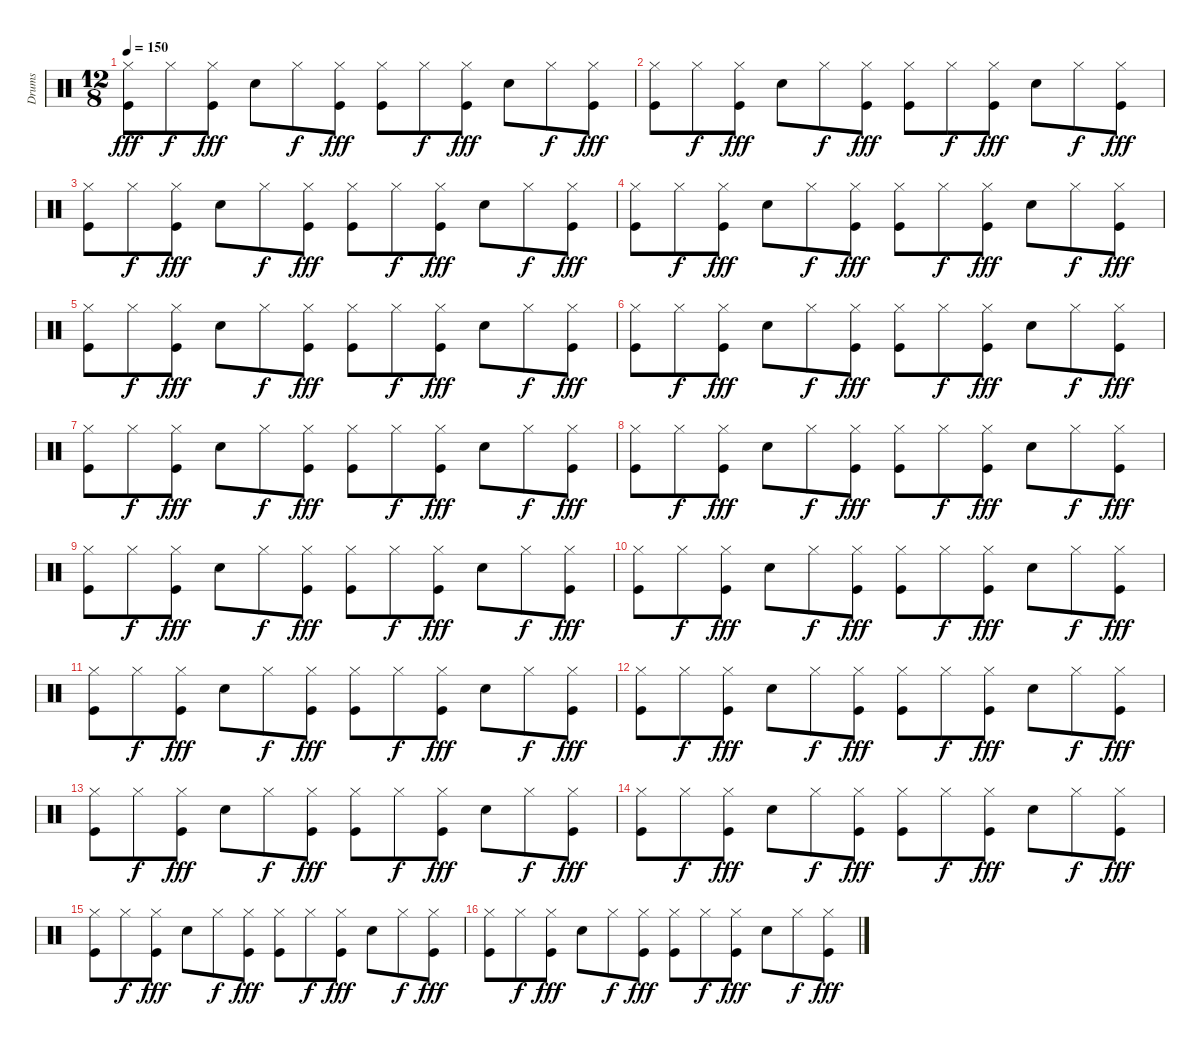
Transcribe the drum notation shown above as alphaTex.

\track ("Drums" "Drums") {instrument percussion}
\staff {score}
\articulation defaults
\ts (12 8)
\tempo 150
\clef neutral
\ks c
("Kick (hit)" "Hi-Hat (closed)").8{dy fff} "Hi-Hat (closed)".8{dy f} ("Kick (hit)" "Hi-Hat (closed)").8{dy fff} "Snare (hit) 2".8 "Hi-Hat (closed)".8{dy f} ("Kick (hit)" "Hi-Hat (closed)").8{dy fff} ("Kick (hit)" "Hi-Hat (closed)").8 "Hi-Hat (closed)".8{dy f} ("Kick (hit)" "Hi-Hat (closed)").8{dy fff} "Snare (hit) 2".8 "Hi-Hat (closed)".8{dy f} ("Kick (hit)" "Hi-Hat (closed)").8{dy fff} |
("Kick (hit)" "Hi-Hat (closed)").8 "Hi-Hat (closed)".8{dy f} ("Kick (hit)" "Hi-Hat (closed)").8{dy fff} "Snare (hit) 2".8 "Hi-Hat (closed)".8{dy f} ("Kick (hit)" "Hi-Hat (closed)").8{dy fff} ("Kick (hit)" "Hi-Hat (closed)").8 "Hi-Hat (closed)".8{dy f} ("Kick (hit)" "Hi-Hat (closed)").8{dy fff} "Snare (hit) 2".8 "Hi-Hat (closed)".8{dy f} ("Kick (hit)" "Hi-Hat (closed)").8{dy fff} |
("Kick (hit)" "Hi-Hat (closed)").8 "Hi-Hat (closed)".8{dy f} ("Kick (hit)" "Hi-Hat (closed)").8{dy fff} "Snare (hit) 2".8 "Hi-Hat (closed)".8{dy f} ("Kick (hit)" "Hi-Hat (closed)").8{dy fff} ("Kick (hit)" "Hi-Hat (closed)").8 "Hi-Hat (closed)".8{dy f} ("Kick (hit)" "Hi-Hat (closed)").8{dy fff} "Snare (hit) 2".8 "Hi-Hat (closed)".8{dy f} ("Kick (hit)" "Hi-Hat (closed)").8{dy fff} |
("Kick (hit)" "Hi-Hat (closed)").8 "Hi-Hat (closed)".8{dy f} ("Kick (hit)" "Hi-Hat (closed)").8{dy fff} "Snare (hit) 2".8 "Hi-Hat (closed)".8{dy f} ("Kick (hit)" "Hi-Hat (closed)").8{dy fff} ("Kick (hit)" "Hi-Hat (closed)").8 "Hi-Hat (closed)".8{dy f} ("Kick (hit)" "Hi-Hat (closed)").8{dy fff} "Snare (hit) 2".8 "Hi-Hat (closed)".8{dy f} ("Kick (hit)" "Hi-Hat (closed)").8{dy fff} |
("Kick (hit)" "Hi-Hat (closed)").8 "Hi-Hat (closed)".8{dy f} ("Kick (hit)" "Hi-Hat (closed)").8{dy fff} "Snare (hit) 2".8 "Hi-Hat (closed)".8{dy f} ("Kick (hit)" "Hi-Hat (closed)").8{dy fff} ("Kick (hit)" "Hi-Hat (closed)").8 "Hi-Hat (closed)".8{dy f} ("Kick (hit)" "Hi-Hat (closed)").8{dy fff} "Snare (hit) 2".8 "Hi-Hat (closed)".8{dy f} ("Kick (hit)" "Hi-Hat (closed)").8{dy fff} |
("Kick (hit)" "Hi-Hat (closed)").8 "Hi-Hat (closed)".8{dy f} ("Kick (hit)" "Hi-Hat (closed)").8{dy fff} "Snare (hit) 2".8 "Hi-Hat (closed)".8{dy f} ("Kick (hit)" "Hi-Hat (closed)").8{dy fff} ("Kick (hit)" "Hi-Hat (closed)").8 "Hi-Hat (closed)".8{dy f} ("Kick (hit)" "Hi-Hat (closed)").8{dy fff} "Snare (hit) 2".8 "Hi-Hat (closed)".8{dy f} ("Kick (hit)" "Hi-Hat (closed)").8{dy fff} |
("Kick (hit)" "Hi-Hat (closed)").8 "Hi-Hat (closed)".8{dy f} ("Kick (hit)" "Hi-Hat (closed)").8{dy fff} "Snare (hit) 2".8 "Hi-Hat (closed)".8{dy f} ("Kick (hit)" "Hi-Hat (closed)").8{dy fff} ("Kick (hit)" "Hi-Hat (closed)").8 "Hi-Hat (closed)".8{dy f} ("Kick (hit)" "Hi-Hat (closed)").8{dy fff} "Snare (hit) 2".8 "Hi-Hat (closed)".8{dy f} ("Kick (hit)" "Hi-Hat (closed)").8{dy fff} |
("Kick (hit)" "Hi-Hat (closed)").8 "Hi-Hat (closed)".8{dy f} ("Kick (hit)" "Hi-Hat (closed)").8{dy fff} "Snare (hit) 2".8 "Hi-Hat (closed)".8{dy f} ("Kick (hit)" "Hi-Hat (closed)").8{dy fff} ("Kick (hit)" "Hi-Hat (closed)").8 "Hi-Hat (closed)".8{dy f} ("Kick (hit)" "Hi-Hat (closed)").8{dy fff} "Snare (hit) 2".8 "Hi-Hat (closed)".8{dy f} ("Kick (hit)" "Hi-Hat (closed)").8{dy fff} |
("Kick (hit)" "Hi-Hat (closed)").8 "Hi-Hat (closed)".8{dy f} ("Kick (hit)" "Hi-Hat (closed)").8{dy fff} "Snare (hit) 2".8 "Hi-Hat (closed)".8{dy f} ("Kick (hit)" "Hi-Hat (closed)").8{dy fff} ("Kick (hit)" "Hi-Hat (closed)").8 "Hi-Hat (closed)".8{dy f} ("Kick (hit)" "Hi-Hat (closed)").8{dy fff} "Snare (hit) 2".8 "Hi-Hat (closed)".8{dy f} ("Kick (hit)" "Hi-Hat (closed)").8{dy fff} |
("Kick (hit)" "Hi-Hat (closed)").8 "Hi-Hat (closed)".8{dy f} ("Kick (hit)" "Hi-Hat (closed)").8{dy fff} "Snare (hit) 2".8 "Hi-Hat (closed)".8{dy f} ("Kick (hit)" "Hi-Hat (closed)").8{dy fff} ("Kick (hit)" "Hi-Hat (closed)").8 "Hi-Hat (closed)".8{dy f} ("Kick (hit)" "Hi-Hat (closed)").8{dy fff} "Snare (hit) 2".8 "Hi-Hat (closed)".8{dy f} ("Kick (hit)" "Hi-Hat (closed)").8{dy fff} |
("Kick (hit)" "Hi-Hat (closed)").8 "Hi-Hat (closed)".8{dy f} ("Kick (hit)" "Hi-Hat (closed)").8{dy fff} "Snare (hit) 2".8 "Hi-Hat (closed)".8{dy f} ("Kick (hit)" "Hi-Hat (closed)").8{dy fff} ("Kick (hit)" "Hi-Hat (closed)").8 "Hi-Hat (closed)".8{dy f} ("Kick (hit)" "Hi-Hat (closed)").8{dy fff} "Snare (hit) 2".8 "Hi-Hat (closed)".8{dy f} ("Kick (hit)" "Hi-Hat (closed)").8{dy fff} |
("Kick (hit)" "Hi-Hat (closed)").8 "Hi-Hat (closed)".8{dy f} ("Kick (hit)" "Hi-Hat (closed)").8{dy fff} "Snare (hit) 2".8 "Hi-Hat (closed)".8{dy f} ("Kick (hit)" "Hi-Hat (closed)").8{dy fff} ("Kick (hit)" "Hi-Hat (closed)").8 "Hi-Hat (closed)".8{dy f} ("Kick (hit)" "Hi-Hat (closed)").8{dy fff} "Snare (hit) 2".8 "Hi-Hat (closed)".8{dy f} ("Kick (hit)" "Hi-Hat (closed)").8{dy fff} |
("Kick (hit)" "Hi-Hat (closed)").8 "Hi-Hat (closed)".8{dy f} ("Kick (hit)" "Hi-Hat (closed)").8{dy fff} "Snare (hit) 2".8 "Hi-Hat (closed)".8{dy f} ("Kick (hit)" "Hi-Hat (closed)").8{dy fff} ("Kick (hit)" "Hi-Hat (closed)").8 "Hi-Hat (closed)".8{dy f} ("Kick (hit)" "Hi-Hat (closed)").8{dy fff} "Snare (hit) 2".8 "Hi-Hat (closed)".8{dy f} ("Kick (hit)" "Hi-Hat (closed)").8{dy fff} |
("Kick (hit)" "Hi-Hat (closed)").8 "Hi-Hat (closed)".8{dy f} ("Kick (hit)" "Hi-Hat (closed)").8{dy fff} "Snare (hit) 2".8 "Hi-Hat (closed)".8{dy f} ("Kick (hit)" "Hi-Hat (closed)").8{dy fff} ("Kick (hit)" "Hi-Hat (closed)").8 "Hi-Hat (closed)".8{dy f} ("Kick (hit)" "Hi-Hat (closed)").8{dy fff} "Snare (hit) 2".8 "Hi-Hat (closed)".8{dy f} ("Kick (hit)" "Hi-Hat (closed)").8{dy fff} |
("Kick (hit)" "Hi-Hat (closed)").8 "Hi-Hat (closed)".8{dy f} ("Kick (hit)" "Hi-Hat (closed)").8{dy fff} "Snare (hit) 2".8 "Hi-Hat (closed)".8{dy f} ("Kick (hit)" "Hi-Hat (closed)").8{dy fff} ("Kick (hit)" "Hi-Hat (closed)").8 "Hi-Hat (closed)".8{dy f} ("Kick (hit)" "Hi-Hat (closed)").8{dy fff} "Snare (hit) 2".8 "Hi-Hat (closed)".8{dy f} ("Kick (hit)" "Hi-Hat (closed)").8{dy fff} |
("Kick (hit)" "Hi-Hat (closed)").8 "Hi-Hat (closed)".8{dy f} ("Kick (hit)" "Hi-Hat (closed)").8{dy fff} "Snare (hit) 2".8 "Hi-Hat (closed)".8{dy f} ("Kick (hit)" "Hi-Hat (closed)").8{dy fff} ("Kick (hit)" "Hi-Hat (closed)").8 "Hi-Hat (closed)".8{dy f} ("Kick (hit)" "Hi-Hat (closed)").8{dy fff} "Snare (hit) 2".8 "Hi-Hat (closed)".8{dy f} ("Kick (hit)" "Hi-Hat (closed)").8{dy fff}
